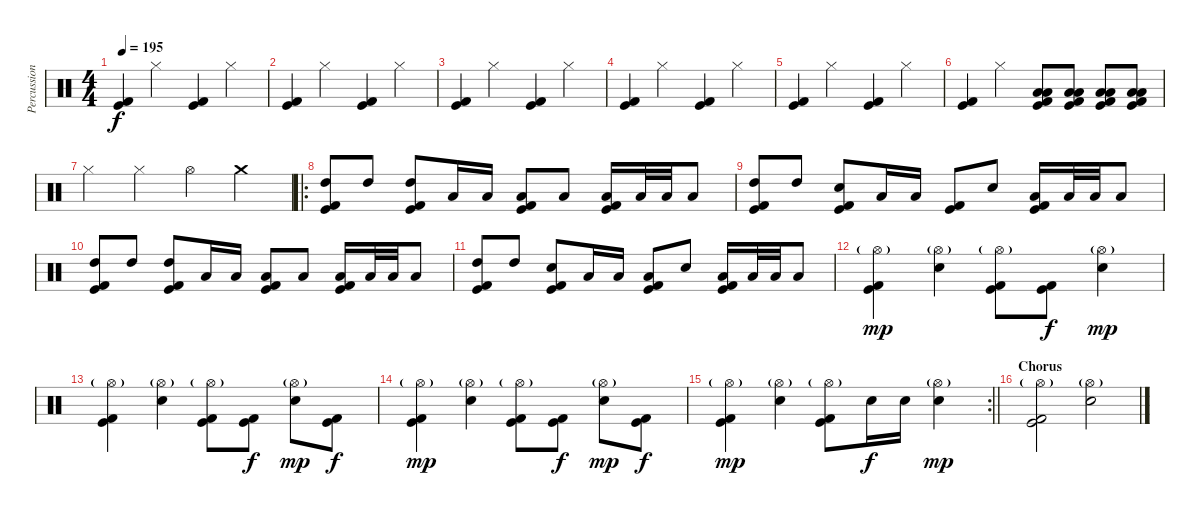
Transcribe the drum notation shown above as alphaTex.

\track ("Percussion" "Percussion") {instrument percussion}
\staff {score}
\articulation defaults
\ts (4 4)
\tempo 195
\clef neutral
\ks c
("Kick (hit)" "Kick (hit) 2").4{dy f} "Hi-Hat (closed)".4 ("Kick (hit)" "Kick (hit) 2").4 "Hi-Hat (closed)".4 |
("Kick (hit)" "Kick (hit) 2").4 "Hi-Hat (closed)".4 ("Kick (hit)" "Kick (hit) 2").4 "Hi-Hat (closed)".4 |
("Kick (hit)" "Kick (hit) 2").4 "Hi-Hat (closed)".4 ("Kick (hit)" "Kick (hit) 2").4 "Hi-Hat (closed)".4 |
("Kick (hit)" "Kick (hit) 2").4 "Hi-Hat (closed)".4 ("Kick (hit)" "Kick (hit) 2").4 "Hi-Hat (closed)".4 |
("Kick (hit)" "Kick (hit) 2").4 "Hi-Hat (closed)".4 ("Kick (hit)" "Kick (hit) 2").4 "Hi-Hat (closed)".4 |
("Kick (hit)" "Kick (hit) 2").4 "Hi-Hat (closed)".4 ("Low Tom (hit)" "Low Floor Tom (hit)" "Kick (hit)" "Kick (hit) 2").8 ("Low Tom (hit)" "Low Floor Tom (hit)" "Kick (hit)" "Kick (hit) 2").8 ("Low Tom (hit)" "Low Floor Tom (hit)" "Kick (hit) 2" "Kick (hit)").8 ("Low Tom (hit)" "Low Floor Tom (hit)" "Kick (hit)" "Kick (hit) 2").8 |
"Hi-Hat (closed)".4 "Hi-Hat (closed)".4 "Hi-Hat (open)".4 "Crash medium (hit)".4 |
\ro
("High Tom (hit)" "Kick (hit)" "Kick (hit) 2").8 "High Tom (hit)".8 ("High Tom (hit)" "Kick (hit)" "Kick (hit) 2").8 "Low Tom (hit)".16 "Low Tom (hit)".16 ("Low Tom (hit)" "Kick (hit)" "Kick (hit) 2").8 "Low Floor Tom (hit)".8 ("Kick (hit)" "Low Floor Tom (hit)" "Kick (hit) 2").16 "Low Floor Tom (hit)".32 "Low Floor Tom (hit)".32 "Low Floor Tom (hit)".8 |
("High Tom (hit)" "Kick (hit)" "Kick (hit) 2").8 "High Tom (hit)".8 ("Snare (hit) 2" "Kick (hit) 2" "Kick (hit)").8 "Low Tom (hit)".16 "Low Tom (hit)".16 ("Kick (hit)" "Kick (hit) 2").8 "Snare (hit) 2".8 ("Kick (hit)" "Low Floor Tom (hit)" "Kick (hit) 2").16 "Low Floor Tom (hit)".32 "Low Floor Tom (hit)".32 "Low Floor Tom (hit)".8 |
("High Tom (hit)" "Kick (hit)" "Kick (hit) 2").8 "High Tom (hit)".8 ("High Tom (hit)" "Kick (hit)" "Kick (hit) 2").8 "Low Tom (hit)".16 "Low Tom (hit)".16 ("Low Tom (hit)" "Kick (hit)" "Kick (hit) 2").8 "Low Floor Tom (hit)".8 ("Kick (hit)" "Low Floor Tom (hit)" "Kick (hit) 2").16 "Low Floor Tom (hit)".32 "Low Floor Tom (hit)".32 "Low Floor Tom (hit)".8 |
("High Tom (hit)" "Kick (hit)" "Kick (hit) 2").8 "High Tom (hit)".8 ("Snare (hit) 2" "Kick (hit) 2" "Kick (hit)").8 "Low Tom (hit)".16 "Low Tom (hit)".16 ("Low Tom (hit)" "Kick (hit)" "Kick (hit) 2").8 "Snare (hit) 2".8 ("Kick (hit)" "Low Floor Tom (hit)" "Kick (hit) 2").16 "Low Floor Tom (hit)".32 "Low Floor Tom (hit)".32 "Low Floor Tom (hit)".8 |
("Hi-Hat (open)"{g} "Kick (hit) 2" "Kick (hit)").4{dy mp} ("Hi-Hat (open)"{g} "Electric Snare (hit)").4 ("Hi-Hat (open)"{g} "Kick (hit) 2" "Kick (hit)").8 ("Kick (hit) 2" "Kick (hit)").8{dy f} ("Hi-Hat (open)"{g} "Electric Snare (hit)").4{dy mp} |
("Hi-Hat (open)"{g} "Kick (hit) 2" "Kick (hit)").4 ("Hi-Hat (open)"{g} "Electric Snare (hit)").4 ("Hi-Hat (open)"{g} "Kick (hit) 2" "Kick (hit)").8 ("Kick (hit) 2" "Kick (hit)").8{dy f} ("Hi-Hat (open)"{g} "Electric Snare (hit)").8{dy mp} ("Kick (hit) 2" "Kick (hit)").8{dy f} |
("Hi-Hat (open)"{g} "Kick (hit) 2" "Kick (hit)").4{dy mp} ("Hi-Hat (open)"{g} "Electric Snare (hit)").4 ("Hi-Hat (open)"{g} "Kick (hit) 2" "Kick (hit)").8 ("Kick (hit) 2" "Kick (hit)").8{dy f} ("Hi-Hat (open)"{g} "Electric Snare (hit)").8{dy mp} ("Kick (hit) 2" "Kick (hit)").8{dy f} |
\rc 2
\barLineRight lightlight
("Hi-Hat (open)"{g} "Kick (hit) 2" "Kick (hit)").4{dy mp} ("Hi-Hat (open)"{g} "Electric Snare (hit)").4 ("Hi-Hat (open)"{g} "Kick (hit) 2" "Kick (hit)").8 "Electric Snare (hit)".16{dy f} "Electric Snare (hit)".16 ("Hi-Hat (open)"{g} "Electric Snare (hit)").4{dy mp} |
\section ("" "Chorus")
("Hi-Hat (open)"{g} "Kick (hit) 2" "Kick (hit)").2 ("Hi-Hat (open)"{g} "Electric Snare (hit)").2
